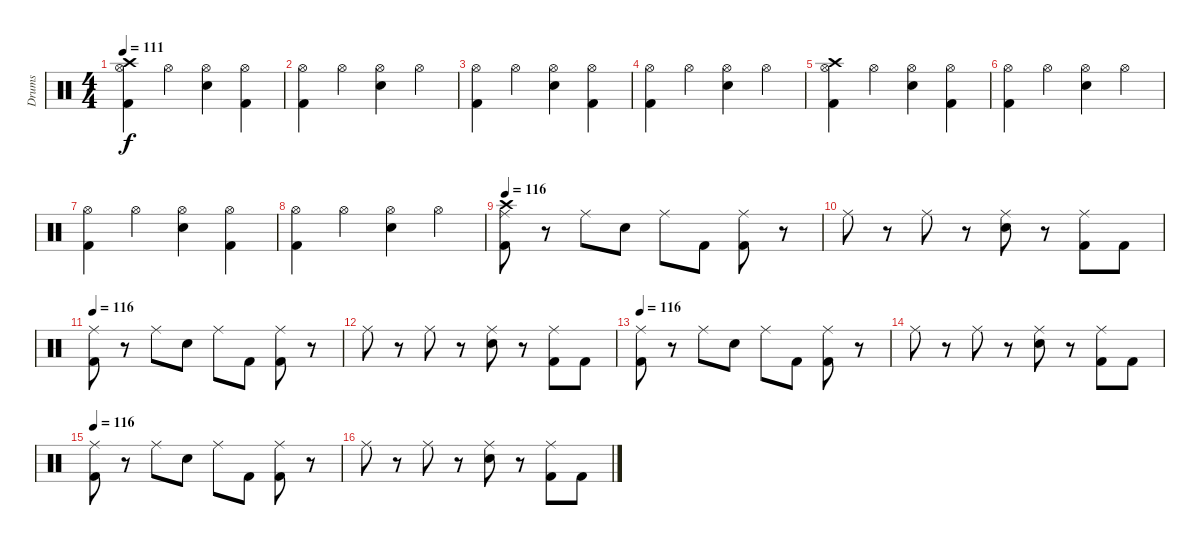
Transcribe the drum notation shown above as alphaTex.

\track ("Drums" "Drums") {instrument percussion}
\staff {score}
\articulation defaults
\ts (4 4)
\tempo 111
\clef neutral
\ks c
("Crash high (hit)" "Hi-Hat (open)" "Kick (hit) 2").4{dy f} "Hi-Hat (open)".4 ("Hi-Hat (open)" "Electric Snare (hit)").4 ("Hi-Hat (open)" "Kick (hit) 2").4 |
("Hi-Hat (open)" "Kick (hit) 2").4 "Hi-Hat (open)".4 ("Hi-Hat (open)" "Electric Snare (hit)").4 "Hi-Hat (open)".4 |
("Hi-Hat (open)" "Kick (hit) 2").4 "Hi-Hat (open)".4 ("Hi-Hat (open)" "Electric Snare (hit)").4 ("Hi-Hat (open)" "Kick (hit) 2").4 |
("Hi-Hat (open)" "Kick (hit) 2").4 "Hi-Hat (open)".4 ("Hi-Hat (open)" "Electric Snare (hit)").4 "Hi-Hat (open)".4 |
("Crash high (hit)" "Hi-Hat (open)" "Kick (hit) 2").4 "Hi-Hat (open)".4 ("Hi-Hat (open)" "Electric Snare (hit)").4 ("Hi-Hat (open)" "Kick (hit) 2").4 |
("Hi-Hat (open)" "Kick (hit) 2").4 "Hi-Hat (open)".4 ("Hi-Hat (open)" "Electric Snare (hit)").4 "Hi-Hat (open)".4 |
("Hi-Hat (open)" "Kick (hit) 2").4 "Hi-Hat (open)".4 ("Hi-Hat (open)" "Electric Snare (hit)").4 ("Hi-Hat (open)" "Kick (hit) 2").4 |
("Hi-Hat (open)" "Kick (hit) 2").4 "Hi-Hat (open)".4 ("Hi-Hat (open)" "Electric Snare (hit)").4 "Hi-Hat (open)".4 |
\tempo 116
("Crash high (hit)" "Ride (middle)" "Kick (hit) 2").8 r.8 "Ride (middle)".8 "Electric Snare (hit)".8 "Ride (middle)".8 "Kick (hit) 2".8 ("Ride (middle)" "Kick (hit) 2").8 r.8 |
"Ride (middle)".8 r.8 "Ride (middle)".8 r.8 ("Ride (middle)" "Electric Snare (hit)").8 r.8 ("Ride (middle)" "Kick (hit) 2").8 "Kick (hit) 2".8 |
\tempo 116
("Ride (middle)" "Kick (hit) 2").8 r.8 "Ride (middle)".8 "Electric Snare (hit)".8 "Ride (middle)".8 "Kick (hit) 2".8 ("Ride (middle)" "Kick (hit) 2").8 r.8 |
"Ride (middle)".8 r.8 "Ride (middle)".8 r.8 ("Ride (middle)" "Electric Snare (hit)").8 r.8 ("Ride (middle)" "Kick (hit) 2").8 "Kick (hit) 2".8 |
\tempo 116
("Ride (middle)" "Kick (hit) 2").8 r.8 "Ride (middle)".8 "Electric Snare (hit)".8 "Ride (middle)".8 "Kick (hit) 2".8 ("Ride (middle)" "Kick (hit) 2").8 r.8 |
"Ride (middle)".8 r.8 "Ride (middle)".8 r.8 ("Ride (middle)" "Electric Snare (hit)").8 r.8 ("Ride (middle)" "Kick (hit) 2").8 "Kick (hit) 2".8 |
\tempo 116
("Ride (middle)" "Kick (hit) 2").8 r.8 "Ride (middle)".8 "Electric Snare (hit)".8 "Ride (middle)".8 "Kick (hit) 2".8 ("Ride (middle)" "Kick (hit) 2").8 r.8 |
"Ride (middle)".8 r.8 "Ride (middle)".8 r.8 ("Ride (middle)" "Electric Snare (hit)").8 r.8 ("Ride (middle)" "Kick (hit) 2").8 "Kick (hit) 2".8
